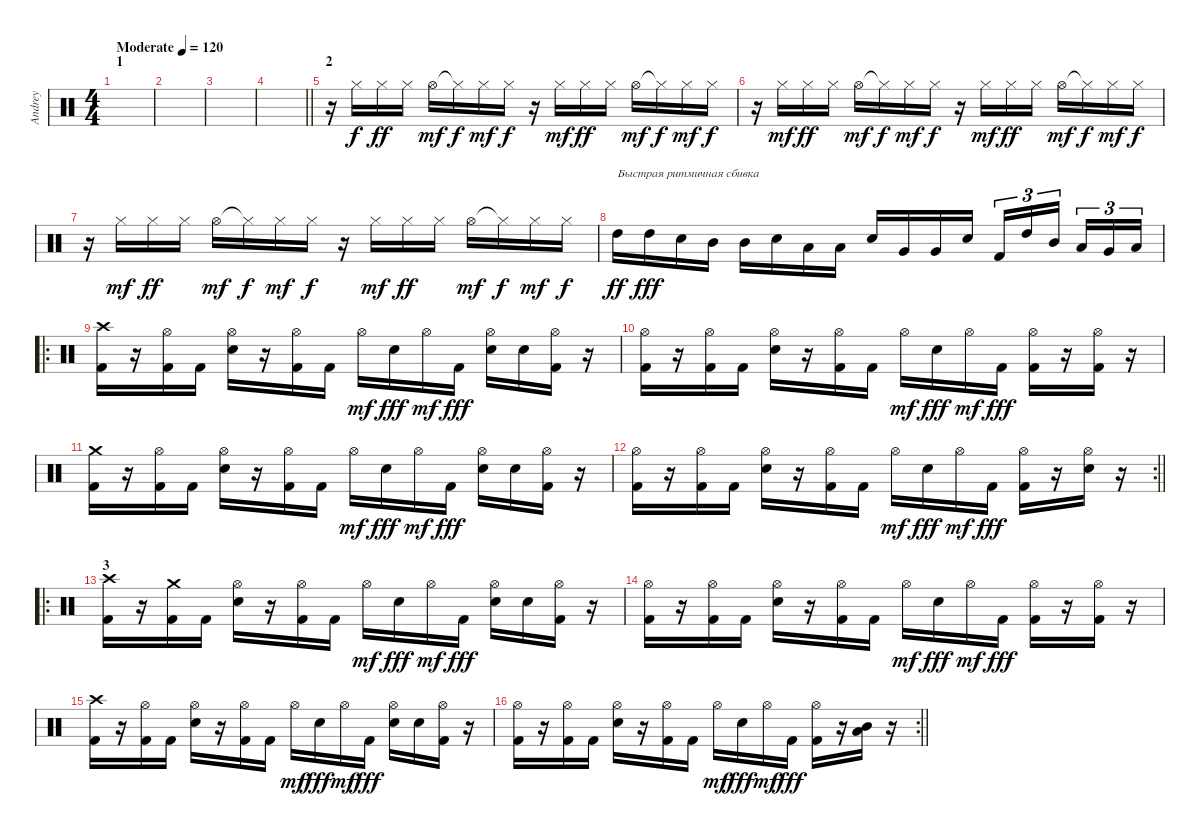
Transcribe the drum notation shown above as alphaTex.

\track ("Andrey" "Andrey") {instrument percussion}
\staff {score}
\articulation defaults
\ts (4 4)
\section ("" "1")
\tempo (120 "Moderate")
\clef neutral
\ks c
|
|
|
\barLineRight lightlight
|
\section ("" "2")
r.16 "Hi-Hat (closed)".16 "Hi-Hat (closed)".16{dy ff} "Hi-Hat (closed)".16 "Hi-Hat (open)".16{dy mf} "Hi-Hat (closed)"{t}.16{dy f} "Hi-Hat (closed)".16{dy mf} "Hi-Hat (closed)".16{dy f} r.16 "Hi-Hat (closed)".16{dy mf} "Hi-Hat (closed)".16{dy ff} "Hi-Hat (closed)".16 "Hi-Hat (open)".16{dy mf} "Hi-Hat (closed)"{t}.16{dy f} "Hi-Hat (closed)".16{dy mf} "Hi-Hat (closed)".16{dy f} |
r.16 "Hi-Hat (closed)".16{dy mf} "Hi-Hat (closed)".16{dy ff} "Hi-Hat (closed)".16 "Hi-Hat (open)".16{dy mf} "Hi-Hat (closed)"{t}.16{dy f} "Hi-Hat (closed)".16{dy mf} "Hi-Hat (closed)".16{dy f} r.16 "Hi-Hat (closed)".16{dy mf} "Hi-Hat (closed)".16{dy ff} "Hi-Hat (closed)".16 "Hi-Hat (open)".16{dy mf} "Hi-Hat (closed)"{t}.16{dy f} "Hi-Hat (closed)".16{dy mf} "Hi-Hat (closed)".16{dy f} |
r.16 "Hi-Hat (closed)".16{dy mf} "Hi-Hat (closed)".16{dy ff} "Hi-Hat (closed)".16 "Hi-Hat (open)".16{dy mf} "Hi-Hat (closed)"{t}.16{dy f} "Hi-Hat (closed)".16{dy mf} "Hi-Hat (closed)".16{dy f} r.16 "Hi-Hat (closed)".16{dy mf} "Hi-Hat (closed)".16{dy ff} "Hi-Hat (closed)".16 "Hi-Hat (open)".16{dy mf} "Hi-Hat (closed)"{t}.16{dy f} "Hi-Hat (closed)".16{dy mf} "Hi-Hat (closed)".16{dy f} |
"High Tom (hit)".16{txt "Быстрая ритмичная сбивка " dy ff} "High Tom (hit)".16{dy fff} "Snare (hit) 2".16 "Mid Tom (hit)".16 "Mid Tom (hit)".16 "Snare (hit) 2".16 "Low Tom (hit)".16 "Low Tom (hit)".16 "Snare (hit) 2".16 "Very Low Tom (hit)".16 "Very Low Tom (hit)".16 "Snare (hit) 2".16 "Kick (hit) 2".16{tu (3 2)} "High Tom (hit)".16{tu (3 2)} "Mid Tom (hit)".16{tu (3 2) beam splitsecondary} "Low Tom (hit)".16{tu (3 2)} "Very Low Tom (hit)".16{tu (3 2)} "Low Floor Tom (hit)".16{tu (3 2)} |
\ro
("Crash high (hit)" "Kick (hit) 2").16 r.16 ("Hi-Hat (open)" "Kick (hit) 2").16 "Kick (hit) 2".16 ("Hi-Hat (open)" "Snare (hit) 2").16 r.16 ("Hi-Hat (open)" "Kick (hit) 2").16 "Kick (hit) 2".16 "Hi-Hat (open)".16{dy mf} "Snare (hit) 2".16{dy fff} "Hi-Hat (open)".16{dy mf} "Kick (hit) 2".16{dy fff} ("Hi-Hat (open)" "Snare (hit) 2").16 "Snare (hit) 2".16 ("Hi-Hat (open)" "Kick (hit) 2").16 r.16 |
("Hi-Hat (open)" "Kick (hit) 2").16 r.16 ("Hi-Hat (open)" "Kick (hit) 2").16 "Kick (hit) 2".16 ("Hi-Hat (open)" "Snare (hit) 2").16 r.16 ("Hi-Hat (open)" "Kick (hit) 2").16 "Kick (hit) 2".16 "Hi-Hat (open)".16{dy mf} "Snare (hit) 2".16{dy fff} "Hi-Hat (open)".16{dy mf} "Kick (hit) 2".16{dy fff} ("Hi-Hat (open)" "Kick (hit) 2").16 r.16 ("Hi-Hat (open)" "Kick (hit) 2").16 r.16 |
("Crash medium (hit)" "Kick (hit) 2").16 r.16 ("Hi-Hat (open)" "Kick (hit) 2").16 "Kick (hit) 2".16 ("Hi-Hat (open)" "Snare (hit) 2").16 r.16 ("Hi-Hat (open)" "Kick (hit) 2").16 "Kick (hit) 2".16 "Hi-Hat (open)".16{dy mf} "Snare (hit) 2".16{dy fff} "Hi-Hat (open)".16{dy mf} "Kick (hit) 2".16{dy fff} ("Hi-Hat (open)" "Snare (hit) 2").16 "Snare (hit) 2".16 ("Hi-Hat (open)" "Kick (hit) 2").16 r.16 |
\rc 2
\barLineRight lightlight
("Hi-Hat (open)" "Kick (hit) 2").16 r.16 ("Hi-Hat (open)" "Kick (hit) 2").16 "Kick (hit) 2".16 ("Hi-Hat (open)" "Snare (hit) 2").16 r.16 ("Hi-Hat (open)" "Kick (hit) 2").16 "Kick (hit) 2".16 "Hi-Hat (open)".16{dy mf} "Snare (hit) 2".16{dy fff} "Hi-Hat (open)".16{dy mf} "Kick (hit) 2".16{dy fff} ("Hi-Hat (open)" "Kick (hit) 2").16 r.16 ("Hi-Hat (open)" "Snare (hit) 2").16 r.16 |
\ro
\section ("" "3")
("Crash high (hit)" "Kick (hit) 2").16 r.16 ("Crash medium (hit)" "Kick (hit) 2").16 "Kick (hit) 2".16 ("Hi-Hat (open)" "Snare (hit) 2").16 r.16 ("Hi-Hat (open)" "Kick (hit) 2").16 "Kick (hit) 2".16 "Hi-Hat (open)".16{dy mf} "Snare (hit) 2".16{dy fff} "Hi-Hat (open)".16{dy mf} "Kick (hit) 2".16{dy fff} ("Hi-Hat (open)" "Snare (hit) 2").16 "Snare (hit) 2".16 ("Hi-Hat (open)" "Kick (hit) 2").16 r.16 |
("Hi-Hat (open)" "Kick (hit) 2").16 r.16 ("Hi-Hat (open)" "Kick (hit) 2").16 "Kick (hit) 2".16 ("Hi-Hat (open)" "Snare (hit) 2").16 r.16 ("Hi-Hat (open)" "Kick (hit) 2").16 "Kick (hit) 2".16 "Hi-Hat (open)".16{dy mf} "Snare (hit) 2".16{dy fff} "Hi-Hat (open)".16{dy mf} "Kick (hit) 2".16{dy fff} ("Hi-Hat (open)" "Kick (hit) 2").16 r.16 ("Hi-Hat (open)" "Kick (hit) 2").16 r.16 |
("Crash high (hit)" "Kick (hit) 2").16 r.16 ("Hi-Hat (open)" "Kick (hit) 2").16 "Kick (hit) 2".16 ("Hi-Hat (open)" "Snare (hit) 2").16 r.16 ("Hi-Hat (open)" "Kick (hit) 2").16 "Kick (hit) 2".16 "Hi-Hat (open)".16{dy mf} "Snare (hit) 2".16{dy fff} "Hi-Hat (open)".16{dy mf} "Kick (hit) 2".16{dy fff} ("Hi-Hat (open)" "Snare (hit) 2").16 "Snare (hit) 2".16 ("Hi-Hat (open)" "Kick (hit) 2").16 r.16 |
\rc 2
\barLineRight lightlight
("Hi-Hat (open)" "Kick (hit) 2").16 r.16 ("Hi-Hat (open)" "Kick (hit) 2").16 "Kick (hit) 2".16 ("Hi-Hat (open)" "Snare (hit) 2").16 r.16 ("Hi-Hat (open)" "Kick (hit) 2").16 "Kick (hit) 2".16 "Hi-Hat (open)".16{dy mf} "Snare (hit) 2".16{dy fff} "Hi-Hat (open)".16{dy mf} "Kick (hit) 2".16{dy fff} ("Hi-Hat (open)" "Kick (hit) 2").16 r.16 ("Low Tom (hit)" "Mid Tom (hit)").16 r.16
